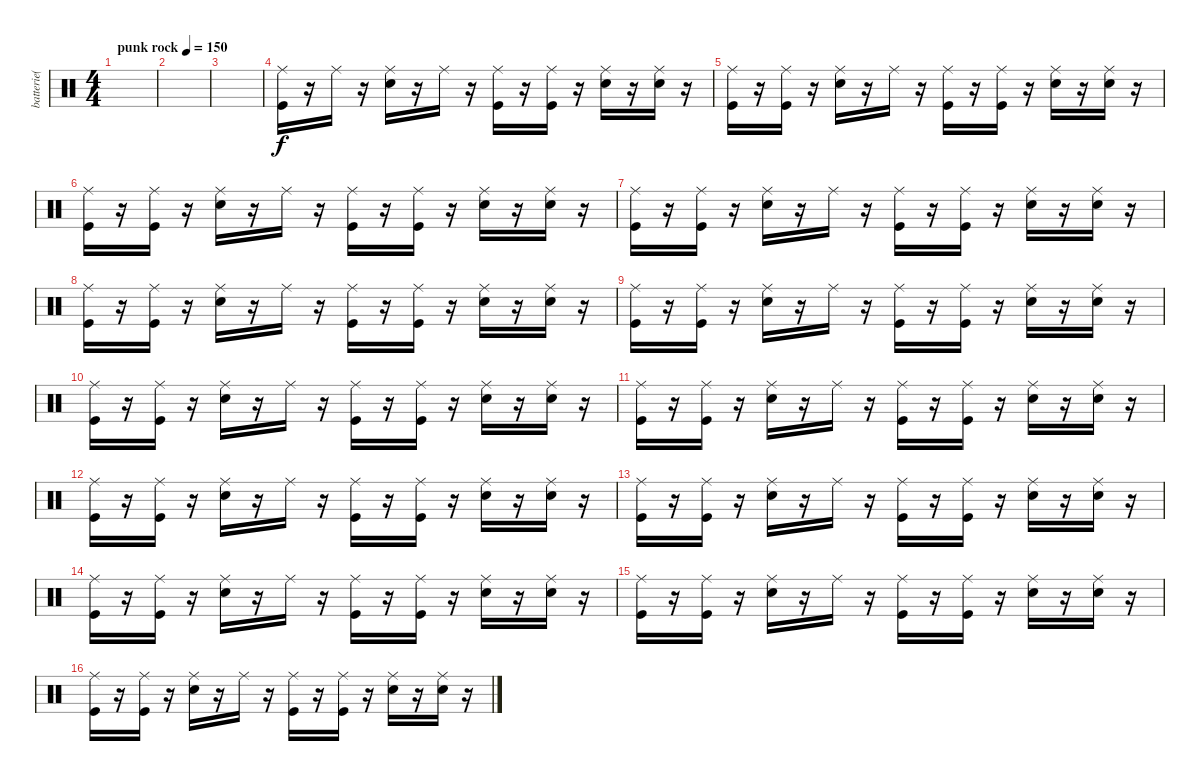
\track ("batterie(  Mark Cain )" "batterie( ") {instrument percussion}
\staff {score}
\articulation defaults
\ts (4 4)
\tempo (150 "punk rock")
\clef neutral
\ks c
|
|
|
("Ride (middle)" "Kick (hit)").16 r.16 "Ride (middle)".16 r.16 ("Ride (middle)" "Snare (hit) 2").16 r.16 "Ride (middle)".16 r.16 ("Ride (middle)" "Kick (hit)").16 r.16 ("Ride (middle)" "Kick (hit)").16 r.16 ("Ride (middle)" "Snare (hit) 2").16 r.16 ("Ride (middle)" "Snare (hit) 2").16 r.16 |
("Ride (middle)" "Kick (hit)").16 r.16 ("Ride (middle)" "Kick (hit)").16 r.16 ("Ride (middle)" "Snare (hit) 2").16 r.16 "Ride (middle)".16 r.16 ("Ride (middle)" "Kick (hit)").16 r.16 ("Ride (middle)" "Kick (hit)").16 r.16 ("Ride (middle)" "Snare (hit) 2").16 r.16 ("Ride (middle)" "Snare (hit) 2").16 r.16 |
("Ride (middle)" "Kick (hit)").16 r.16 ("Ride (middle)" "Kick (hit)").16 r.16 ("Ride (middle)" "Snare (hit) 2").16 r.16 "Ride (middle)".16 r.16 ("Ride (middle)" "Kick (hit)").16 r.16 ("Ride (middle)" "Kick (hit)").16 r.16 ("Ride (middle)" "Snare (hit) 2").16 r.16 ("Ride (middle)" "Snare (hit) 2").16 r.16 |
("Ride (middle)" "Kick (hit)").16 r.16 ("Ride (middle)" "Kick (hit)").16 r.16 ("Ride (middle)" "Snare (hit) 2").16 r.16 "Ride (middle)".16 r.16 ("Ride (middle)" "Kick (hit)").16 r.16 ("Ride (middle)" "Kick (hit)").16 r.16 ("Ride (middle)" "Snare (hit) 2").16 r.16 ("Ride (middle)" "Snare (hit) 2").16 r.16 |
("Ride (middle)" "Kick (hit)").16 r.16 ("Ride (middle)" "Kick (hit)").16 r.16 ("Ride (middle)" "Snare (hit) 2").16 r.16 "Ride (middle)".16 r.16 ("Ride (middle)" "Kick (hit)").16 r.16 ("Ride (middle)" "Kick (hit)").16 r.16 ("Ride (middle)" "Snare (hit) 2").16 r.16 ("Ride (middle)" "Snare (hit) 2").16 r.16 |
("Ride (middle)" "Kick (hit)").16 r.16 ("Ride (middle)" "Kick (hit)").16 r.16 ("Ride (middle)" "Snare (hit) 2").16 r.16 "Ride (middle)".16 r.16 ("Ride (middle)" "Kick (hit)").16 r.16 ("Ride (middle)" "Kick (hit)").16 r.16 ("Ride (middle)" "Snare (hit) 2").16 r.16 ("Ride (middle)" "Snare (hit) 2").16 r.16 |
("Ride (middle)" "Kick (hit)").16 r.16 ("Ride (middle)" "Kick (hit)").16 r.16 ("Ride (middle)" "Snare (hit) 2").16 r.16 "Ride (middle)".16 r.16 ("Ride (middle)" "Kick (hit)").16 r.16 ("Ride (middle)" "Kick (hit)").16 r.16 ("Ride (middle)" "Snare (hit) 2").16 r.16 ("Ride (middle)" "Snare (hit) 2").16 r.16 |
("Ride (middle)" "Kick (hit)").16 r.16 ("Ride (middle)" "Kick (hit)").16 r.16 ("Ride (middle)" "Snare (hit) 2").16 r.16 "Ride (middle)".16 r.16 ("Ride (middle)" "Kick (hit)").16 r.16 ("Ride (middle)" "Kick (hit)").16 r.16 ("Ride (middle)" "Snare (hit) 2").16 r.16 ("Ride (middle)" "Snare (hit) 2").16 r.16 |
("Ride (middle)" "Kick (hit)").16 r.16 ("Ride (middle)" "Kick (hit)").16 r.16 ("Ride (middle)" "Snare (hit) 2").16 r.16 "Ride (middle)".16 r.16 ("Ride (middle)" "Kick (hit)").16 r.16 ("Ride (middle)" "Kick (hit)").16 r.16 ("Ride (middle)" "Snare (hit) 2").16 r.16 ("Ride (middle)" "Snare (hit) 2").16 r.16 |
("Ride (middle)" "Kick (hit)").16 r.16 ("Ride (middle)" "Kick (hit)").16 r.16 ("Ride (middle)" "Snare (hit) 2").16 r.16 "Ride (middle)".16 r.16 ("Ride (middle)" "Kick (hit)").16 r.16 ("Ride (middle)" "Kick (hit)").16 r.16 ("Ride (middle)" "Snare (hit) 2").16 r.16 ("Ride (middle)" "Snare (hit) 2").16 r.16 |
("Ride (middle)" "Kick (hit)").16 r.16 ("Ride (middle)" "Kick (hit)").16 r.16 ("Ride (middle)" "Snare (hit) 2").16 r.16 "Ride (middle)".16 r.16 ("Ride (middle)" "Kick (hit)").16 r.16 ("Ride (middle)" "Kick (hit)").16 r.16 ("Ride (middle)" "Snare (hit) 2").16 r.16 ("Ride (middle)" "Snare (hit) 2").16 r.16 |
("Ride (middle)" "Kick (hit)").16 r.16 ("Ride (middle)" "Kick (hit)").16 r.16 ("Ride (middle)" "Snare (hit) 2").16 r.16 "Ride (middle)".16 r.16 ("Ride (middle)" "Kick (hit)").16 r.16 ("Ride (middle)" "Kick (hit)").16 r.16 ("Ride (middle)" "Snare (hit) 2").16 r.16 ("Ride (middle)" "Snare (hit) 2").16 r.16 |
("Ride (middle)" "Kick (hit)").16 r.16 ("Ride (middle)" "Kick (hit)").16 r.16 ("Ride (middle)" "Snare (hit) 2").16 r.16 "Ride (middle)".16 r.16 ("Ride (middle)" "Kick (hit)").16 r.16 ("Ride (middle)" "Kick (hit)").16 r.16 ("Ride (middle)" "Snare (hit) 2").16 r.16 ("Ride (middle)" "Snare (hit) 2").16 r.16
